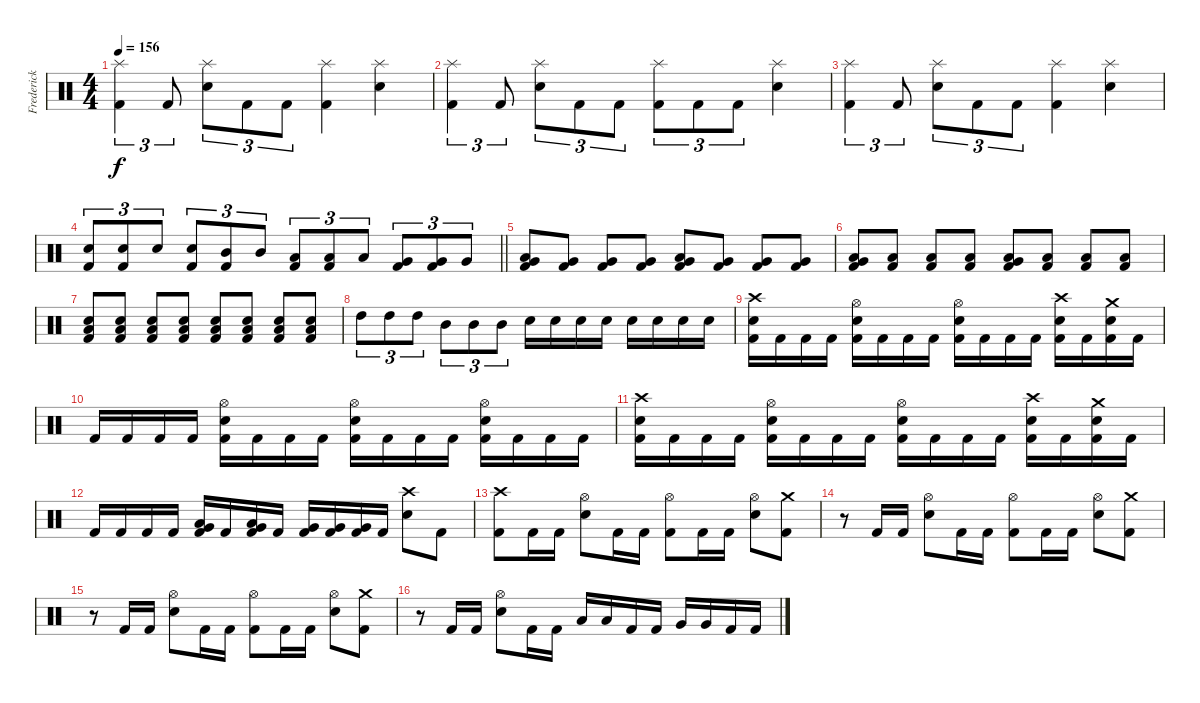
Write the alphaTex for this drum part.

\track ("Frederick Ehmke" "Frederick ") {instrument percussion}
\staff {score}
\articulation defaults
\ts (4 4)
\tempo 156
\clef neutral
\ks c
("Splash (hit)" "Kick (hit) 2").4{tu (3 2) dy f} "Kick (hit) 2".8{tu (3 2)} ("Splash (hit)" "Electric Snare (hit)").8{tu (3 2)} "Kick (hit) 2".8{tu (3 2)} "Kick (hit) 2".8{tu (3 2)} ("Splash (hit)" "Kick (hit) 2").4 ("Splash (hit)" "Electric Snare (hit)").4 |
("Splash (hit)" "Kick (hit) 2").4{tu (3 2)} "Kick (hit) 2".8{tu (3 2)} ("Splash (hit)" "Electric Snare (hit)").8{tu (3 2)} "Kick (hit) 2".8{tu (3 2)} "Kick (hit) 2".8{tu (3 2)} ("Splash (hit)" "Kick (hit) 2").8{tu (3 2)} "Kick (hit) 2".8{tu (3 2)} "Kick (hit) 2".8{tu (3 2)} ("Splash (hit)" "Electric Snare (hit)").4 |
("Splash (hit)" "Kick (hit) 2").4{tu (3 2)} "Kick (hit) 2".8{tu (3 2)} ("Splash (hit)" "Electric Snare (hit)").8{tu (3 2)} "Kick (hit) 2".8{tu (3 2)} "Kick (hit) 2".8{tu (3 2)} ("Splash (hit)" "Kick (hit) 2").4 ("Splash (hit)" "Electric Snare (hit)").4 |
\barLineRight lightlight
("Kick (hit) 2" "Electric Snare (hit)").8{tu (3 2)} ("Kick (hit) 2" "Electric Snare (hit)").8{tu (3 2)} "Electric Snare (hit)".8{tu (3 2)} ("Kick (hit) 2" "Electric Snare (hit)").8{tu (3 2)} ("Kick (hit) 2" "Mid Tom (hit)").8{tu (3 2)} "Mid Tom (hit)".8{tu (3 2)} ("Kick (hit) 2" "Low Tom (hit)").8{tu (3 2)} ("Kick (hit) 2" "Low Tom (hit)").8{tu (3 2)} "Low Tom (hit)".8{tu (3 2)} ("Kick (hit) 2" "Very Low Tom (hit)").8{tu (3 2)} ("Kick (hit) 2" "Very Low Tom (hit)").8{tu (3 2)} "Very Low Tom (hit)".8{tu (3 2)} |
("Kick (hit) 2" "Very Low Tom (hit)" "Low Tom (hit)").8 ("Kick (hit) 2" "Very Low Tom (hit)").8 ("Kick (hit) 2" "Very Low Tom (hit)").8 ("Kick (hit) 2" "Very Low Tom (hit)").8 ("Kick (hit) 2" "Very Low Tom (hit)" "Low Tom (hit)").8 ("Kick (hit) 2" "Very Low Tom (hit)").8 ("Kick (hit) 2" "Very Low Tom (hit)").8 ("Kick (hit) 2" "Very Low Tom (hit)").8 |
("Kick (hit) 2" "Low Floor Tom (hit)" "Very Low Tom (hit)").8 ("Kick (hit) 2" "Low Floor Tom (hit)").8 ("Kick (hit) 2" "Low Floor Tom (hit)").8 ("Kick (hit) 2" "Low Floor Tom (hit)").8 ("Kick (hit) 2" "Low Floor Tom (hit)" "Very Low Tom (hit)").8 ("Kick (hit) 2" "Low Floor Tom (hit)").8 ("Kick (hit) 2" "Low Floor Tom (hit)").8 ("Kick (hit) 2" "Low Floor Tom (hit)").8 |
("Kick (hit) 2" "Electric Snare (hit)" "Low Floor Tom (hit)").8 ("Kick (hit) 2" "Electric Snare (hit)" "Low Floor Tom (hit)").8 ("Kick (hit) 2" "Electric Snare (hit)" "Low Floor Tom (hit)").8 ("Kick (hit) 2" "Electric Snare (hit)" "Low Floor Tom (hit)").8 ("Kick (hit) 2" "Electric Snare (hit)" "Low Floor Tom (hit)").8 ("Kick (hit) 2" "Electric Snare (hit)" "Low Floor Tom (hit)").8 ("Kick (hit) 2" "Electric Snare (hit)" "Low Floor Tom (hit)").8 ("Kick (hit) 2" "Electric Snare (hit)" "Low Floor Tom (hit)").8 |
"High Tom (hit)".8{tu (3 2)} "High Tom (hit)".8{tu (3 2)} "High Tom (hit)".8{tu (3 2)} "Mid Tom (hit)".8{tu (3 2)} "Mid Tom (hit)".8{tu (3 2)} "Mid Tom (hit)".8{tu (3 2)} "Electric Snare (hit)".16 "Electric Snare (hit)".16 "Electric Snare (hit)".16 "Electric Snare (hit)".16 "Electric Snare (hit)".16 "Electric Snare (hit)".16 "Electric Snare (hit)".16 "Electric Snare (hit)".16 |
("Crash high (hit)" "Kick (hit) 2" "Electric Snare (hit)").16 "Kick (hit) 2".16 "Kick (hit) 2".16 "Kick (hit) 2".16 ("Hi-Hat (open)" "Kick (hit) 2" "Electric Snare (hit)").16 "Kick (hit) 2".16 "Kick (hit) 2".16 "Kick (hit) 2".16 ("Hi-Hat (open)" "Kick (hit) 2" "Electric Snare (hit)").16 "Kick (hit) 2".16 "Kick (hit) 2".16 "Kick (hit) 2".16 ("Crash high (hit)" "Kick (hit) 2" "Electric Snare (hit)").16 "Kick (hit) 2".16 ("Crash medium (hit)" "Kick (hit) 2" "Electric Snare (hit)").16 "Kick (hit) 2".16 |
"Kick (hit) 2".16 "Kick (hit) 2".16 "Kick (hit) 2".16 "Kick (hit) 2".16 ("Hi-Hat (open)" "Kick (hit) 2" "Electric Snare (hit)").16 "Kick (hit) 2".16 "Kick (hit) 2".16 "Kick (hit) 2".16 ("Hi-Hat (open)" "Kick (hit) 2" "Electric Snare (hit)").16 "Kick (hit) 2".16 "Kick (hit) 2".16 "Kick (hit) 2".16 ("Hi-Hat (open)" "Kick (hit) 2" "Electric Snare (hit)").16 "Kick (hit) 2".16 "Kick (hit) 2".16 "Kick (hit) 2".16 |
("Crash high (hit)" "Kick (hit) 2" "Electric Snare (hit)").16 "Kick (hit) 2".16 "Kick (hit) 2".16 "Kick (hit) 2".16 ("Hi-Hat (open)" "Kick (hit) 2" "Electric Snare (hit)").16 "Kick (hit) 2".16 "Kick (hit) 2".16 "Kick (hit) 2".16 ("Hi-Hat (open)" "Kick (hit) 2" "Electric Snare (hit)").16 "Kick (hit) 2".16 "Kick (hit) 2".16 "Kick (hit) 2".16 ("Crash high (hit)" "Kick (hit) 2" "Electric Snare (hit)").16 "Kick (hit) 2".16 ("Crash medium (hit)" "Kick (hit) 2" "Electric Snare (hit)").16 "Kick (hit) 2".16 |
"Kick (hit) 2".16 "Kick (hit) 2".16 "Kick (hit) 2".16 "Kick (hit) 2".16 ("Kick (hit) 2" "Low Tom (hit)" "Very Low Tom (hit)").16 "Kick (hit) 2".16 ("Kick (hit) 2" "Low Tom (hit)" "Very Low Tom (hit)").16 "Kick (hit) 2".16 ("Kick (hit) 2" "Very Low Tom (hit)").16 ("Kick (hit) 2" "Very Low Tom (hit)").16 ("Kick (hit) 2" "Very Low Tom (hit)").16 "Kick (hit) 2".16 ("Crash high (hit)" "Electric Snare (hit)").8 "Kick (hit) 2".8 |
("Crash high (hit)" "Kick (hit) 2").8 "Kick (hit) 2".16 "Kick (hit) 2".16 ("Hi-Hat (open)" "Electric Snare (hit)").8 "Kick (hit) 2".16 "Kick (hit) 2".16 ("Hi-Hat (open)" "Kick (hit) 2").8 "Kick (hit) 2".16 "Kick (hit) 2".16 ("Hi-Hat (open)" "Electric Snare (hit)").8 ("Crash medium (hit)" "Kick (hit) 2").8 |
r.8 "Kick (hit) 2".16 "Kick (hit) 2".16 ("Hi-Hat (open)" "Electric Snare (hit)").8 "Kick (hit) 2".16 "Kick (hit) 2".16 ("Hi-Hat (open)" "Kick (hit) 2").8 "Kick (hit) 2".16 "Kick (hit) 2".16 ("Hi-Hat (open)" "Electric Snare (hit)").8 ("Crash medium (hit)" "Kick (hit) 2").8 |
r.8 "Kick (hit) 2".16 "Kick (hit) 2".16 ("Hi-Hat (open)" "Electric Snare (hit)").8 "Kick (hit) 2".16 "Kick (hit) 2".16 ("Hi-Hat (open)" "Kick (hit) 2").8 "Kick (hit) 2".16 "Kick (hit) 2".16 ("Hi-Hat (open)" "Electric Snare (hit)").8 ("Crash medium (hit)" "Kick (hit) 2").8 |
r.8 "Kick (hit) 2".16 "Kick (hit) 2".16 ("Hi-Hat (open)" "Electric Snare (hit)").8 "Kick (hit) 2".16 "Kick (hit) 2".16 "Low Tom (hit)".16 "Low Tom (hit)".16 "Kick (hit) 2".16 "Kick (hit) 2".16 "Very Low Tom (hit)".16 "Very Low Tom (hit)".16 "Kick (hit) 2".16 "Kick (hit) 2".16
